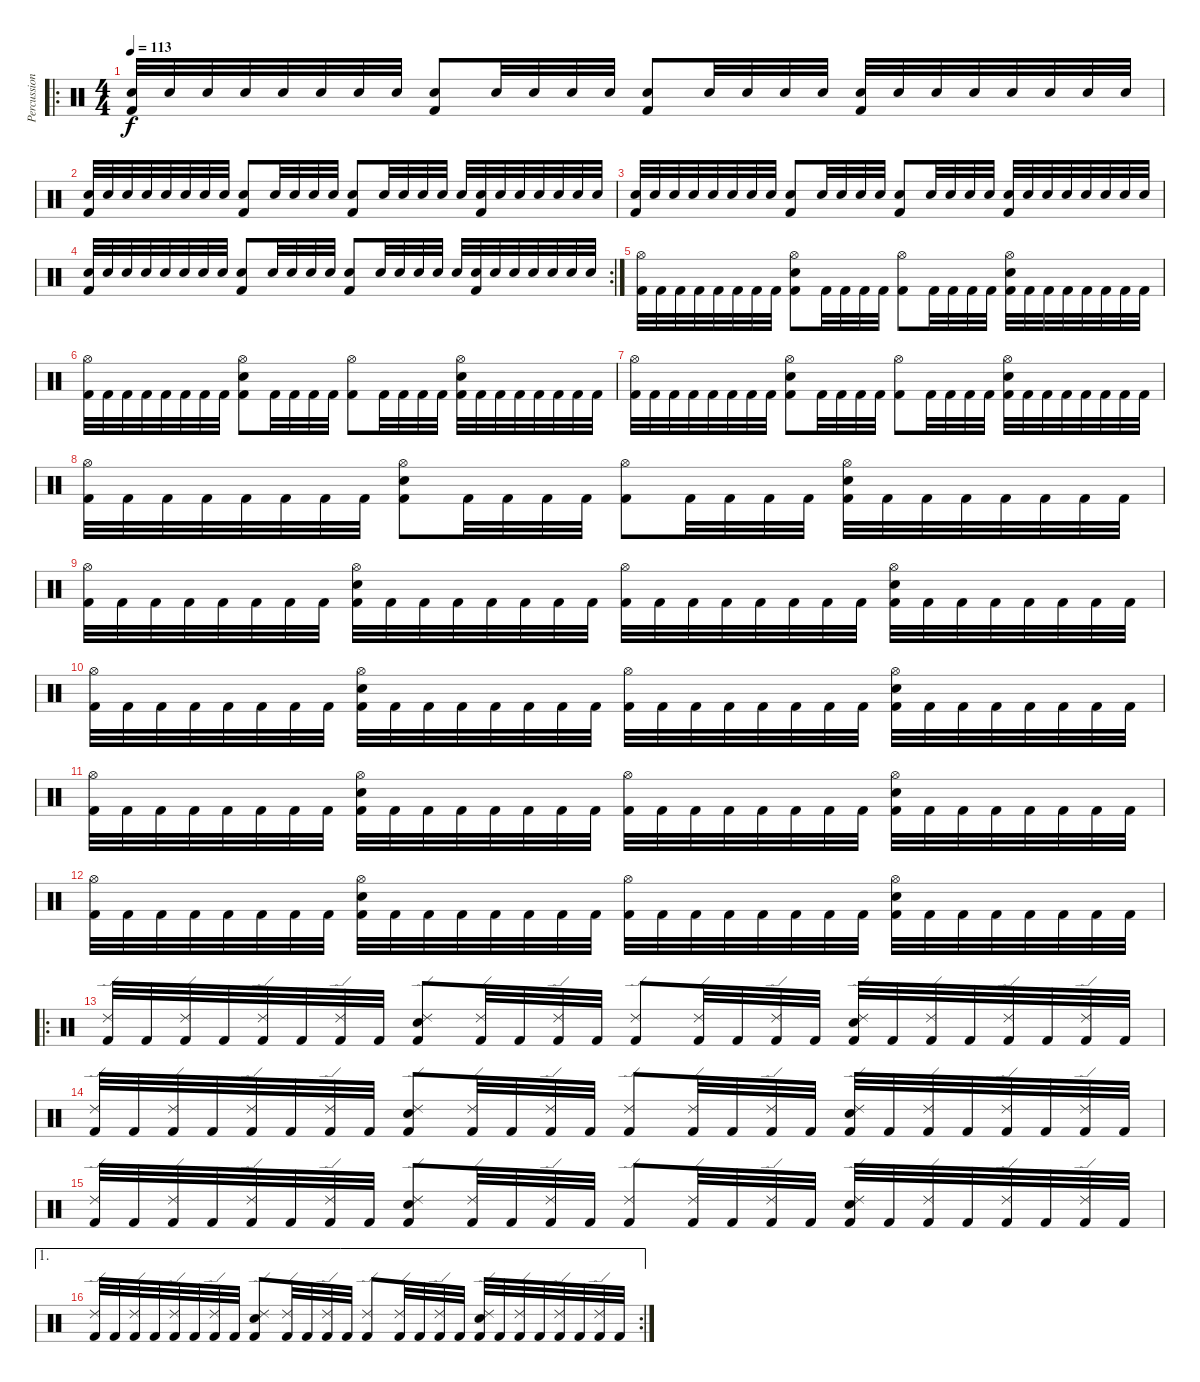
\track ("Percussion" "Percussion") {instrument percussion}
\staff {score}
\articulation defaults
\ro
\ts (4 4)
\tempo 113
\clef neutral
\ks c
("Electric Snare (hit)" "Kick (hit) 2").32{dy f} "Electric Snare (hit)".32 "Electric Snare (hit)".32 "Electric Snare (hit)".32 "Electric Snare (hit)".32 "Electric Snare (hit)".32 "Electric Snare (hit)".32 "Electric Snare (hit)".32 ("Electric Snare (hit)" "Kick (hit) 2").8 "Electric Snare (hit)".32 "Electric Snare (hit)".32 "Electric Snare (hit)".32 "Electric Snare (hit)".32 ("Electric Snare (hit)" "Kick (hit) 2").8 "Electric Snare (hit)".32 "Electric Snare (hit)".32 "Electric Snare (hit)".32 "Electric Snare (hit)".32 ("Electric Snare (hit)" "Kick (hit) 2").32 "Electric Snare (hit)".32 "Electric Snare (hit)".32 "Electric Snare (hit)".32 "Electric Snare (hit)".32 "Electric Snare (hit)".32 "Electric Snare (hit)".32 "Electric Snare (hit)".32 |
("Electric Snare (hit)" "Kick (hit) 2").32 "Electric Snare (hit)".32 "Electric Snare (hit)".32 "Electric Snare (hit)".32 "Electric Snare (hit)".32 "Electric Snare (hit)".32 "Electric Snare (hit)".32 "Electric Snare (hit)".32 ("Electric Snare (hit)" "Kick (hit) 2").8 "Electric Snare (hit)".32 "Electric Snare (hit)".32 "Electric Snare (hit)".32 "Electric Snare (hit)".32 ("Electric Snare (hit)" "Kick (hit) 2").8 "Electric Snare (hit)".32 "Electric Snare (hit)".32 "Electric Snare (hit)".32 "Electric Snare (hit)".32 "Electric Snare (hit)".32 ("Electric Snare (hit)" "Kick (hit) 2").32 "Electric Snare (hit)".32 "Electric Snare (hit)".32 "Electric Snare (hit)".32 "Electric Snare (hit)".32 "Electric Snare (hit)".32 "Electric Snare (hit)".32 |
("Electric Snare (hit)" "Kick (hit) 2").32 "Electric Snare (hit)".32 "Electric Snare (hit)".32 "Electric Snare (hit)".32 "Electric Snare (hit)".32 "Electric Snare (hit)".32 "Electric Snare (hit)".32 "Electric Snare (hit)".32 ("Electric Snare (hit)" "Kick (hit) 2").8 "Electric Snare (hit)".32 "Electric Snare (hit)".32 "Electric Snare (hit)".32 "Electric Snare (hit)".32 ("Electric Snare (hit)" "Kick (hit) 2").8 "Electric Snare (hit)".32 "Electric Snare (hit)".32 "Electric Snare (hit)".32 "Electric Snare (hit)".32 ("Electric Snare (hit)" "Kick (hit) 2").32 "Electric Snare (hit)".32 "Electric Snare (hit)".32 "Electric Snare (hit)".32 "Electric Snare (hit)".32 "Electric Snare (hit)".32 "Electric Snare (hit)".32 "Electric Snare (hit)".32 |
\rc 2
("Electric Snare (hit)" "Kick (hit) 2").32 "Electric Snare (hit)".32 "Electric Snare (hit)".32 "Electric Snare (hit)".32 "Electric Snare (hit)".32 "Electric Snare (hit)".32 "Electric Snare (hit)".32 "Electric Snare (hit)".32 ("Electric Snare (hit)" "Kick (hit) 2").8 "Electric Snare (hit)".32 "Electric Snare (hit)".32 "Electric Snare (hit)".32 "Electric Snare (hit)".32 ("Electric Snare (hit)" "Kick (hit) 2").8 "Electric Snare (hit)".32 "Electric Snare (hit)".32 "Electric Snare (hit)".32 "Electric Snare (hit)".32 "Electric Snare (hit)".32 ("Electric Snare (hit)" "Kick (hit) 2").32 "Electric Snare (hit)".32 "Electric Snare (hit)".32 "Electric Snare (hit)".32 "Electric Snare (hit)".32 "Electric Snare (hit)".32 "Electric Snare (hit)".32 |
("Hi-Hat (open)" "Kick (hit) 2").32 "Kick (hit) 2".32 "Kick (hit) 2".32 "Kick (hit) 2".32 "Kick (hit) 2".32 "Kick (hit) 2".32 "Kick (hit) 2".32 "Kick (hit) 2".32 ("Hi-Hat (open)" "Electric Snare (hit)" "Kick (hit) 2").8 "Kick (hit) 2".32 "Kick (hit) 2".32 "Kick (hit) 2".32 "Kick (hit) 2".32 ("Hi-Hat (open)" "Kick (hit) 2").8 "Kick (hit) 2".32 "Kick (hit) 2".32 "Kick (hit) 2".32 "Kick (hit) 2".32 ("Hi-Hat (open)" "Electric Snare (hit)" "Kick (hit) 2").32 "Kick (hit) 2".32 "Kick (hit) 2".32 "Kick (hit) 2".32 "Kick (hit) 2".32 "Kick (hit) 2".32 "Kick (hit) 2".32 "Kick (hit) 2".32 |
("Hi-Hat (open)" "Kick (hit) 2").32 "Kick (hit) 2".32 "Kick (hit) 2".32 "Kick (hit) 2".32 "Kick (hit) 2".32 "Kick (hit) 2".32 "Kick (hit) 2".32 "Kick (hit) 2".32 ("Hi-Hat (open)" "Electric Snare (hit)" "Kick (hit) 2").8 "Kick (hit) 2".32 "Kick (hit) 2".32 "Kick (hit) 2".32 "Kick (hit) 2".32 ("Hi-Hat (open)" "Kick (hit) 2").8 "Kick (hit) 2".32 "Kick (hit) 2".32 "Kick (hit) 2".32 "Kick (hit) 2".32 ("Hi-Hat (open)" "Electric Snare (hit)" "Kick (hit) 2").32 "Kick (hit) 2".32 "Kick (hit) 2".32 "Kick (hit) 2".32 "Kick (hit) 2".32 "Kick (hit) 2".32 "Kick (hit) 2".32 "Kick (hit) 2".32 |
("Hi-Hat (open)" "Kick (hit) 2").32 "Kick (hit) 2".32 "Kick (hit) 2".32 "Kick (hit) 2".32 "Kick (hit) 2".32 "Kick (hit) 2".32 "Kick (hit) 2".32 "Kick (hit) 2".32 ("Hi-Hat (open)" "Electric Snare (hit)" "Kick (hit) 2").8 "Kick (hit) 2".32 "Kick (hit) 2".32 "Kick (hit) 2".32 "Kick (hit) 2".32 ("Hi-Hat (open)" "Kick (hit) 2").8 "Kick (hit) 2".32 "Kick (hit) 2".32 "Kick (hit) 2".32 "Kick (hit) 2".32 ("Hi-Hat (open)" "Electric Snare (hit)" "Kick (hit) 2").32 "Kick (hit) 2".32 "Kick (hit) 2".32 "Kick (hit) 2".32 "Kick (hit) 2".32 "Kick (hit) 2".32 "Kick (hit) 2".32 "Kick (hit) 2".32 |
("Hi-Hat (open)" "Kick (hit) 2").32 "Kick (hit) 2".32 "Kick (hit) 2".32 "Kick (hit) 2".32 "Kick (hit) 2".32 "Kick (hit) 2".32 "Kick (hit) 2".32 "Kick (hit) 2".32 ("Hi-Hat (open)" "Electric Snare (hit)" "Kick (hit) 2").8 "Kick (hit) 2".32 "Kick (hit) 2".32 "Kick (hit) 2".32 "Kick (hit) 2".32 ("Hi-Hat (open)" "Kick (hit) 2").8 "Kick (hit) 2".32 "Kick (hit) 2".32 "Kick (hit) 2".32 "Kick (hit) 2".32 ("Hi-Hat (open)" "Electric Snare (hit)" "Kick (hit) 2").32 "Kick (hit) 2".32 "Kick (hit) 2".32 "Kick (hit) 2".32 "Kick (hit) 2".32 "Kick (hit) 2".32 "Kick (hit) 2".32 "Kick (hit) 2".32 |
("Hi-Hat (open)" "Kick (hit) 2").32 "Kick (hit) 2".32 "Kick (hit) 2".32 "Kick (hit) 2".32 "Kick (hit) 2".32 "Kick (hit) 2".32 "Kick (hit) 2".32 "Kick (hit) 2".32 ("Hi-Hat (open)" "Electric Snare (hit)" "Kick (hit) 2").32 "Kick (hit) 2".32 "Kick (hit) 2".32 "Kick (hit) 2".32 "Kick (hit) 2".32 "Kick (hit) 2".32 "Kick (hit) 2".32 "Kick (hit) 2".32 ("Hi-Hat (open)" "Kick (hit) 2").32 "Kick (hit) 2".32 "Kick (hit) 2".32 "Kick (hit) 2".32 "Kick (hit) 2".32 "Kick (hit) 2".32 "Kick (hit) 2".32 "Kick (hit) 2".32 ("Hi-Hat (open)" "Electric Snare (hit)" "Kick (hit) 2").32 "Kick (hit) 2".32 "Kick (hit) 2".32 "Kick (hit) 2".32 "Kick (hit) 2".32 "Kick (hit) 2".32 "Kick (hit) 2".32 "Kick (hit) 2".32 |
("Hi-Hat (open)" "Kick (hit) 2").32 "Kick (hit) 2".32 "Kick (hit) 2".32 "Kick (hit) 2".32 "Kick (hit) 2".32 "Kick (hit) 2".32 "Kick (hit) 2".32 "Kick (hit) 2".32 ("Hi-Hat (open)" "Electric Snare (hit)" "Kick (hit) 2").32 "Kick (hit) 2".32 "Kick (hit) 2".32 "Kick (hit) 2".32 "Kick (hit) 2".32 "Kick (hit) 2".32 "Kick (hit) 2".32 "Kick (hit) 2".32 ("Hi-Hat (open)" "Kick (hit) 2").32 "Kick (hit) 2".32 "Kick (hit) 2".32 "Kick (hit) 2".32 "Kick (hit) 2".32 "Kick (hit) 2".32 "Kick (hit) 2".32 "Kick (hit) 2".32 ("Hi-Hat (open)" "Electric Snare (hit)" "Kick (hit) 2").32 "Kick (hit) 2".32 "Kick (hit) 2".32 "Kick (hit) 2".32 "Kick (hit) 2".32 "Kick (hit) 2".32 "Kick (hit) 2".32 "Kick (hit) 2".32 |
("Hi-Hat (open)" "Kick (hit) 2").32 "Kick (hit) 2".32 "Kick (hit) 2".32 "Kick (hit) 2".32 "Kick (hit) 2".32 "Kick (hit) 2".32 "Kick (hit) 2".32 "Kick (hit) 2".32 ("Hi-Hat (open)" "Electric Snare (hit)" "Kick (hit) 2").32 "Kick (hit) 2".32 "Kick (hit) 2".32 "Kick (hit) 2".32 "Kick (hit) 2".32 "Kick (hit) 2".32 "Kick (hit) 2".32 "Kick (hit) 2".32 ("Hi-Hat (open)" "Kick (hit) 2").32 "Kick (hit) 2".32 "Kick (hit) 2".32 "Kick (hit) 2".32 "Kick (hit) 2".32 "Kick (hit) 2".32 "Kick (hit) 2".32 "Kick (hit) 2".32 ("Hi-Hat (open)" "Electric Snare (hit)" "Kick (hit) 2").32 "Kick (hit) 2".32 "Kick (hit) 2".32 "Kick (hit) 2".32 "Kick (hit) 2".32 "Kick (hit) 2".32 "Kick (hit) 2".32 "Kick (hit) 2".32 |
("Hi-Hat (open)" "Kick (hit) 2").32 "Kick (hit) 2".32 "Kick (hit) 2".32 "Kick (hit) 2".32 "Kick (hit) 2".32 "Kick (hit) 2".32 "Kick (hit) 2".32 "Kick (hit) 2".32 ("Hi-Hat (open)" "Electric Snare (hit)" "Kick (hit) 2").32 "Kick (hit) 2".32 "Kick (hit) 2".32 "Kick (hit) 2".32 "Kick (hit) 2".32 "Kick (hit) 2".32 "Kick (hit) 2".32 "Kick (hit) 2".32 ("Hi-Hat (open)" "Kick (hit) 2").32 "Kick (hit) 2".32 "Kick (hit) 2".32 "Kick (hit) 2".32 "Kick (hit) 2".32 "Kick (hit) 2".32 "Kick (hit) 2".32 "Kick (hit) 2".32 ("Hi-Hat (open)" "Electric Snare (hit)" "Kick (hit) 2").32 "Kick (hit) 2".32 "Kick (hit) 2".32 "Kick (hit) 2".32 "Kick (hit) 2".32 "Kick (hit) 2".32 "Kick (hit) 2".32 "Kick (hit) 2".32 |
\ro
("Ride (edge) 2" "Kick (hit) 2").32 "Kick (hit) 2".32 ("Ride (edge) 2" "Kick (hit) 2").32 "Kick (hit) 2".32 ("Ride (edge) 2" "Kick (hit) 2").32 "Kick (hit) 2".32 ("Ride (edge) 2" "Kick (hit) 2").32 "Kick (hit) 2".32 ("Ride (edge) 2" "Electric Snare (hit)" "Kick (hit) 2").8 ("Ride (edge) 2" "Kick (hit) 2").32 "Kick (hit) 2".32 ("Ride (edge) 2" "Kick (hit) 2").32 "Kick (hit) 2".32 ("Ride (edge) 2" "Kick (hit) 2").8 ("Ride (edge) 2" "Kick (hit) 2").32 "Kick (hit) 2".32 ("Ride (edge) 2" "Kick (hit) 2").32 "Kick (hit) 2".32 ("Ride (edge) 2" "Electric Snare (hit)" "Kick (hit) 2").32 "Kick (hit) 2".32 ("Ride (edge) 2" "Kick (hit) 2").32 "Kick (hit) 2".32 ("Ride (edge) 2" "Kick (hit) 2").32 "Kick (hit) 2".32 ("Ride (edge) 2" "Kick (hit) 2").32 "Kick (hit) 2".32 |
("Ride (edge) 2" "Kick (hit) 2").32 "Kick (hit) 2".32 ("Ride (edge) 2" "Kick (hit) 2").32 "Kick (hit) 2".32 ("Ride (edge) 2" "Kick (hit) 2").32 "Kick (hit) 2".32 ("Ride (edge) 2" "Kick (hit) 2").32 "Kick (hit) 2".32 ("Ride (edge) 2" "Electric Snare (hit)" "Kick (hit) 2").8 ("Ride (edge) 2" "Kick (hit) 2").32 "Kick (hit) 2".32 ("Ride (edge) 2" "Kick (hit) 2").32 "Kick (hit) 2".32 ("Ride (edge) 2" "Kick (hit) 2").8 ("Ride (edge) 2" "Kick (hit) 2").32 "Kick (hit) 2".32 ("Ride (edge) 2" "Kick (hit) 2").32 "Kick (hit) 2".32 ("Ride (edge) 2" "Electric Snare (hit)" "Kick (hit) 2").32 "Kick (hit) 2".32 ("Ride (edge) 2" "Kick (hit) 2").32 "Kick (hit) 2".32 ("Ride (edge) 2" "Kick (hit) 2").32 "Kick (hit) 2".32 ("Ride (edge) 2" "Kick (hit) 2").32 "Kick (hit) 2".32 |
("Ride (edge) 2" "Kick (hit) 2").32 "Kick (hit) 2".32 ("Ride (edge) 2" "Kick (hit) 2").32 "Kick (hit) 2".32 ("Ride (edge) 2" "Kick (hit) 2").32 "Kick (hit) 2".32 ("Ride (edge) 2" "Kick (hit) 2").32 "Kick (hit) 2".32 ("Ride (edge) 2" "Electric Snare (hit)" "Kick (hit) 2").8 ("Ride (edge) 2" "Kick (hit) 2").32 "Kick (hit) 2".32 ("Ride (edge) 2" "Kick (hit) 2").32 "Kick (hit) 2".32 ("Ride (edge) 2" "Kick (hit) 2").8 ("Ride (edge) 2" "Kick (hit) 2").32 "Kick (hit) 2".32 ("Ride (edge) 2" "Kick (hit) 2").32 "Kick (hit) 2".32 ("Ride (edge) 2" "Electric Snare (hit)" "Kick (hit) 2").32 "Kick (hit) 2".32 ("Ride (edge) 2" "Kick (hit) 2").32 "Kick (hit) 2".32 ("Ride (edge) 2" "Kick (hit) 2").32 "Kick (hit) 2".32 ("Ride (edge) 2" "Kick (hit) 2").32 "Kick (hit) 2".32 |
\ae 1
\rc 2
("Ride (edge) 2" "Kick (hit) 2").32 "Kick (hit) 2".32 ("Ride (edge) 2" "Kick (hit) 2").32 "Kick (hit) 2".32 ("Ride (edge) 2" "Kick (hit) 2").32 "Kick (hit) 2".32 ("Ride (edge) 2" "Kick (hit) 2").32 "Kick (hit) 2".32 ("Ride (edge) 2" "Electric Snare (hit)" "Kick (hit) 2").8 ("Ride (edge) 2" "Kick (hit) 2").32 "Kick (hit) 2".32 ("Ride (edge) 2" "Kick (hit) 2").32 "Kick (hit) 2".32 ("Ride (edge) 2" "Kick (hit) 2").8 ("Ride (edge) 2" "Kick (hit) 2").32 "Kick (hit) 2".32 ("Ride (edge) 2" "Kick (hit) 2").32 "Kick (hit) 2".32 ("Ride (edge) 2" "Electric Snare (hit)" "Kick (hit) 2").32 "Kick (hit) 2".32 ("Ride (edge) 2" "Kick (hit) 2").32 "Kick (hit) 2".32 ("Ride (edge) 2" "Kick (hit) 2").32 "Kick (hit) 2".32 ("Ride (edge) 2" "Kick (hit) 2").32 "Kick (hit) 2".32
